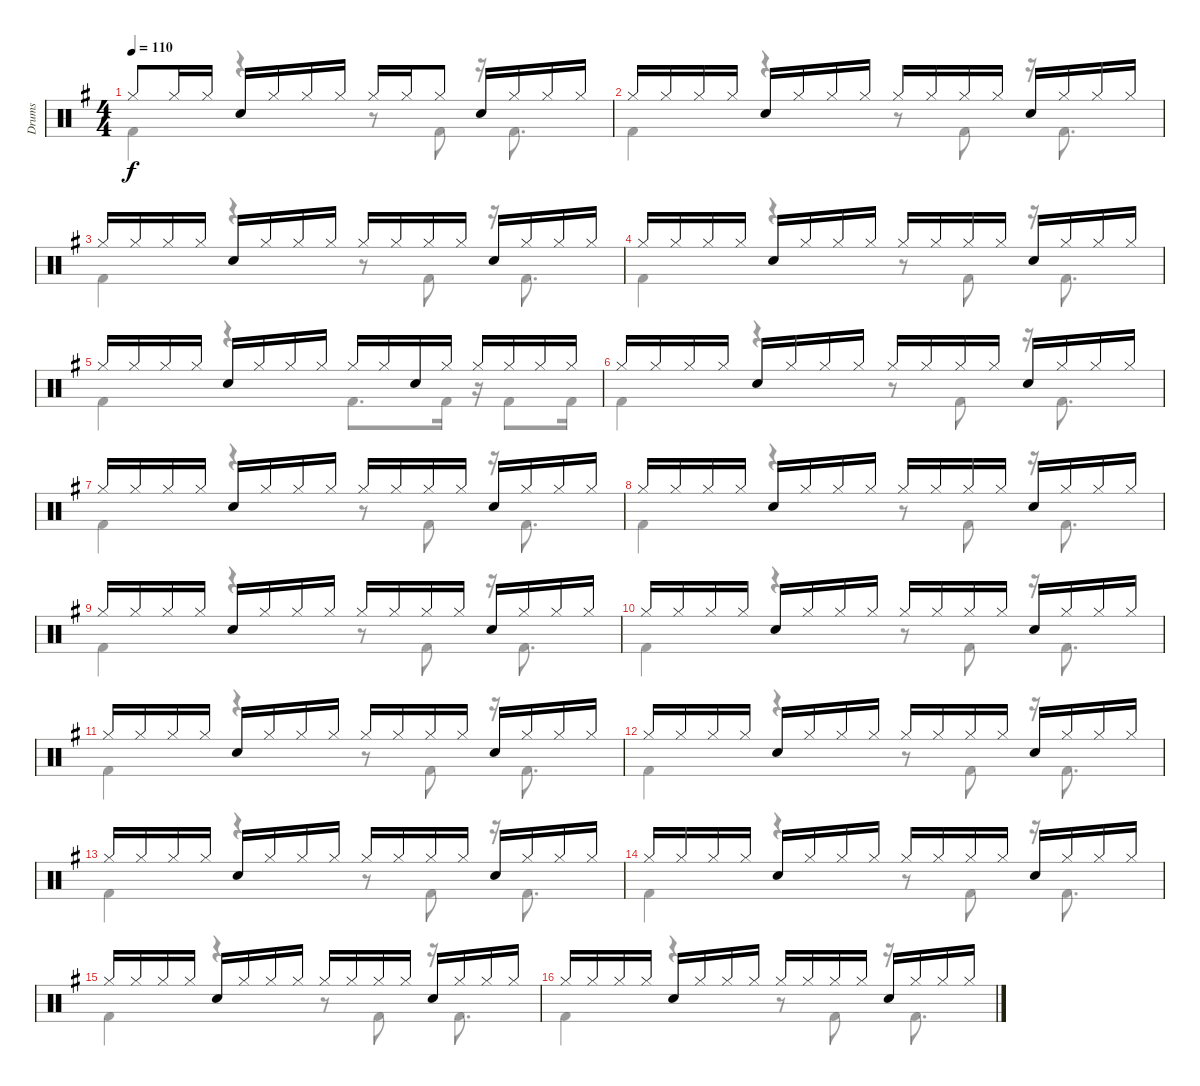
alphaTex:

\track ("Drums" "Drums") {instrument percussion}
\staff {score}
\articulation defaults
\voice
\ts (4 4)
\tempo 110
\clef neutral
\ks g "Hi-Hat (closed)".8{dy f} "Hi-Hat (closed)".16 "Hi-Hat (closed)".16 "Snare (hit) 2".16 "Hi-Hat (closed)".16 "Hi-Hat (closed)".16 "Hi-Hat (closed)".16 "Hi-Hat (closed)".16 "Hi-Hat (closed)".16 "Hi-Hat (closed)".8 "Snare (hit) 2".16 "Hi-Hat (closed)".16 "Hi-Hat (closed)".16 "Hi-Hat (closed)".16
|
"Hi-Hat (closed)".16 "Hi-Hat (closed)".16 "Hi-Hat (closed)".16 "Hi-Hat (closed)".16 "Snare (hit) 2".16 "Hi-Hat (closed)".16 "Hi-Hat (closed)".16 "Hi-Hat (closed)".16 "Hi-Hat (closed)".16 "Hi-Hat (closed)".16 "Hi-Hat (closed)".16 "Hi-Hat (closed)".16 "Snare (hit) 2".16 "Hi-Hat (closed)".16 "Hi-Hat (closed)".16 "Hi-Hat (closed)".16 |
"Hi-Hat (closed)".16 "Hi-Hat (closed)".16 "Hi-Hat (closed)".16 "Hi-Hat (closed)".16 "Snare (hit) 2".16 "Hi-Hat (closed)".16 "Hi-Hat (closed)".16 "Hi-Hat (closed)".16 "Hi-Hat (closed)".16 "Hi-Hat (closed)".16 "Hi-Hat (closed)".16 "Hi-Hat (closed)".16 "Snare (hit) 2".16 "Hi-Hat (closed)".16 "Hi-Hat (closed)".16 "Hi-Hat (closed)".16 |
"Hi-Hat (closed)".16 "Hi-Hat (closed)".16 "Hi-Hat (closed)".16 "Hi-Hat (closed)".16 "Snare (hit) 2".16 "Hi-Hat (closed)".16 "Hi-Hat (closed)".16 "Hi-Hat (closed)".16 "Hi-Hat (closed)".16 "Hi-Hat (closed)".16 "Hi-Hat (closed)".16 "Hi-Hat (closed)".16 "Snare (hit) 2".16 "Hi-Hat (closed)".16 "Hi-Hat (closed)".16 "Hi-Hat (closed)".16 |
"Hi-Hat (closed)".16 "Hi-Hat (closed)".16 "Hi-Hat (closed)".16 "Hi-Hat (closed)".16 "Snare (hit) 2".16 "Hi-Hat (closed)".16 "Hi-Hat (closed)".16 "Hi-Hat (closed)".16 "Hi-Hat (closed)".16 "Hi-Hat (closed)".16 "Snare (hit) 2".16 "Hi-Hat (closed)".16 "Hi-Hat (closed)".16 "Hi-Hat (closed)".16 "Hi-Hat (closed)".16 "Hi-Hat (closed)".16 |
"Hi-Hat (closed)".16 "Hi-Hat (closed)".16 "Hi-Hat (closed)".16 "Hi-Hat (closed)".16 "Snare (hit) 2".16 "Hi-Hat (closed)".16 "Hi-Hat (closed)".16 "Hi-Hat (closed)".16 "Hi-Hat (closed)".16 "Hi-Hat (closed)".16 "Hi-Hat (closed)".16 "Hi-Hat (closed)".16 "Snare (hit) 2".16 "Hi-Hat (closed)".16 "Hi-Hat (closed)".16 "Hi-Hat (closed)".16 |
"Hi-Hat (closed)".16 "Hi-Hat (closed)".16 "Hi-Hat (closed)".16 "Hi-Hat (closed)".16 "Snare (hit) 2".16 "Hi-Hat (closed)".16 "Hi-Hat (closed)".16 "Hi-Hat (closed)".16 "Hi-Hat (closed)".16 "Hi-Hat (closed)".16 "Hi-Hat (closed)".16 "Hi-Hat (closed)".16 "Snare (hit) 2".16 "Hi-Hat (closed)".16 "Hi-Hat (closed)".16 "Hi-Hat (closed)".16 |
"Hi-Hat (closed)".16 "Hi-Hat (closed)".16 "Hi-Hat (closed)".16 "Hi-Hat (closed)".16 "Snare (hit) 2".16 "Hi-Hat (closed)".16 "Hi-Hat (closed)".16 "Hi-Hat (closed)".16 "Hi-Hat (closed)".16 "Hi-Hat (closed)".16 "Hi-Hat (closed)".16 "Hi-Hat (closed)".16 "Snare (hit) 2".16 "Hi-Hat (closed)".16 "Hi-Hat (closed)".16 "Hi-Hat (closed)".16 |
"Hi-Hat (closed)".16 "Hi-Hat (closed)".16 "Hi-Hat (closed)".16 "Hi-Hat (closed)".16 "Snare (hit) 2".16 "Hi-Hat (closed)".16 "Hi-Hat (closed)".16 "Hi-Hat (closed)".16 "Hi-Hat (closed)".16 "Hi-Hat (closed)".16 "Hi-Hat (closed)".16 "Hi-Hat (closed)".16 "Snare (hit) 2".16 "Hi-Hat (closed)".16 "Hi-Hat (closed)".16 "Hi-Hat (closed)".16 |
"Hi-Hat (closed)".16 "Hi-Hat (closed)".16 "Hi-Hat (closed)".16 "Hi-Hat (closed)".16 "Snare (hit) 2".16 "Hi-Hat (closed)".16 "Hi-Hat (closed)".16 "Hi-Hat (closed)".16 "Hi-Hat (closed)".16 "Hi-Hat (closed)".16 "Hi-Hat (closed)".16 "Hi-Hat (closed)".16 "Snare (hit) 2".16 "Hi-Hat (closed)".16 "Hi-Hat (closed)".16 "Hi-Hat (closed)".16 |
"Hi-Hat (closed)".16 "Hi-Hat (closed)".16 "Hi-Hat (closed)".16 "Hi-Hat (closed)".16 "Snare (hit) 2".16 "Hi-Hat (closed)".16 "Hi-Hat (closed)".16 "Hi-Hat (closed)".16 "Hi-Hat (closed)".16 "Hi-Hat (closed)".16 "Hi-Hat (closed)".16 "Hi-Hat (closed)".16 "Snare (hit) 2".16 "Hi-Hat (closed)".16 "Hi-Hat (closed)".16 "Hi-Hat (closed)".16 |
"Hi-Hat (closed)".16 "Hi-Hat (closed)".16 "Hi-Hat (closed)".16 "Hi-Hat (closed)".16 "Snare (hit) 2".16 "Hi-Hat (closed)".16 "Hi-Hat (closed)".16 "Hi-Hat (closed)".16 "Hi-Hat (closed)".16 "Hi-Hat (closed)".16 "Hi-Hat (closed)".16 "Hi-Hat (closed)".16 "Snare (hit) 2".16 "Hi-Hat (closed)".16 "Hi-Hat (closed)".16 "Hi-Hat (closed)".16 |
"Hi-Hat (closed)".16 "Hi-Hat (closed)".16 "Hi-Hat (closed)".16 "Hi-Hat (closed)".16 "Snare (hit) 2".16 "Hi-Hat (closed)".16 "Hi-Hat (closed)".16 "Hi-Hat (closed)".16 "Hi-Hat (closed)".16 "Hi-Hat (closed)".16 "Hi-Hat (closed)".16 "Hi-Hat (closed)".16 "Snare (hit) 2".16 "Hi-Hat (closed)".16 "Hi-Hat (closed)".16 "Hi-Hat (closed)".16 |
"Hi-Hat (closed)".16 "Hi-Hat (closed)".16 "Hi-Hat (closed)".16 "Hi-Hat (closed)".16 "Snare (hit) 2".16 "Hi-Hat (closed)".16 "Hi-Hat (closed)".16 "Hi-Hat (closed)".16 "Hi-Hat (closed)".16 "Hi-Hat (closed)".16 "Hi-Hat (closed)".16 "Hi-Hat (closed)".16 "Snare (hit) 2".16 "Hi-Hat (closed)".16 "Hi-Hat (closed)".16 "Hi-Hat (closed)".16 |
"Hi-Hat (closed)".16 "Hi-Hat (closed)".16 "Hi-Hat (closed)".16 "Hi-Hat (closed)".16 "Snare (hit) 2".16 "Hi-Hat (closed)".16 "Hi-Hat (closed)".16 "Hi-Hat (closed)".16 "Hi-Hat (closed)".16 "Hi-Hat (closed)".16 "Hi-Hat (closed)".16 "Hi-Hat (closed)".16 "Snare (hit) 2".16 "Hi-Hat (closed)".16 "Hi-Hat (closed)".16 "Hi-Hat (closed)".16 |
"Hi-Hat (closed)".16 "Hi-Hat (closed)".16 "Hi-Hat (closed)".16 "Hi-Hat (closed)".16 "Snare (hit) 2".16 "Hi-Hat (closed)".16 "Hi-Hat (closed)".16 "Hi-Hat (closed)".16 "Hi-Hat (closed)".16 "Hi-Hat (closed)".16 "Hi-Hat (closed)".16 "Hi-Hat (closed)".16 "Snare (hit) 2".16 "Hi-Hat (closed)".16 "Hi-Hat (closed)".16 "Hi-Hat (closed)".16
\voice
\clef neutral
\ottava regular
\simile none
\ks g "Kick (hit) 2".4{dy f}
r.4 r.8 "Kick (hit) 2".8 r.16 "Kick (hit) 2".8{d} |
"Kick (hit) 2".4 r.4 r.8 "Kick (hit) 2".8 r.16 "Kick (hit) 2".8{d} |
"Kick (hit) 2".4 r.4 r.8 "Kick (hit) 2".8 r.16 "Kick (hit) 2".8{d} |
"Kick (hit) 2".4 r.4 r.8 "Kick (hit) 2".8 r.16 "Kick (hit) 2".8{d} |
"Kick (hit) 2".4 r.4 "Kick (hit) 2".8{d} "Kick (hit) 2".16 r.16 "Kick (hit) 2".8 "Kick (hit) 2".16 |
"Kick (hit) 2".4 r.4 r.8 "Kick (hit) 2".8 r.16 "Kick (hit) 2".8{d} |
"Kick (hit) 2".4 r.4 r.8 "Kick (hit) 2".8 r.16 "Kick (hit) 2".8{d} |
"Kick (hit) 2".4 r.4 r.8 "Kick (hit) 2".8 r.16 "Kick (hit) 2".8{d} |
"Kick (hit) 2".4 r.4 r.8 "Kick (hit) 2".8 r.16 "Kick (hit) 2".8{d} |
"Kick (hit) 2".4 r.4 r.8 "Kick (hit) 2".8 r.16 "Kick (hit) 2".8{d} |
"Kick (hit) 2".4 r.4 r.8 "Kick (hit) 2".8 r.16 "Kick (hit) 2".8{d} |
"Kick (hit) 2".4 r.4 r.8 "Kick (hit) 2".8 r.16 "Kick (hit) 2".8{d} |
"Kick (hit) 2".4 r.4 r.8 "Kick (hit) 2".8 r.16 "Kick (hit) 2".8{d} |
"Kick (hit) 2".4 r.4 r.8 "Kick (hit) 2".8 r.16 "Kick (hit) 2".8{d} |
"Kick (hit) 2".4 r.4 r.8 "Kick (hit) 2".8 r.16 "Kick (hit) 2".8{d} |
"Kick (hit) 2".4 r.4 r.8 "Kick (hit) 2".8 r.16 "Kick (hit) 2".8{d}
